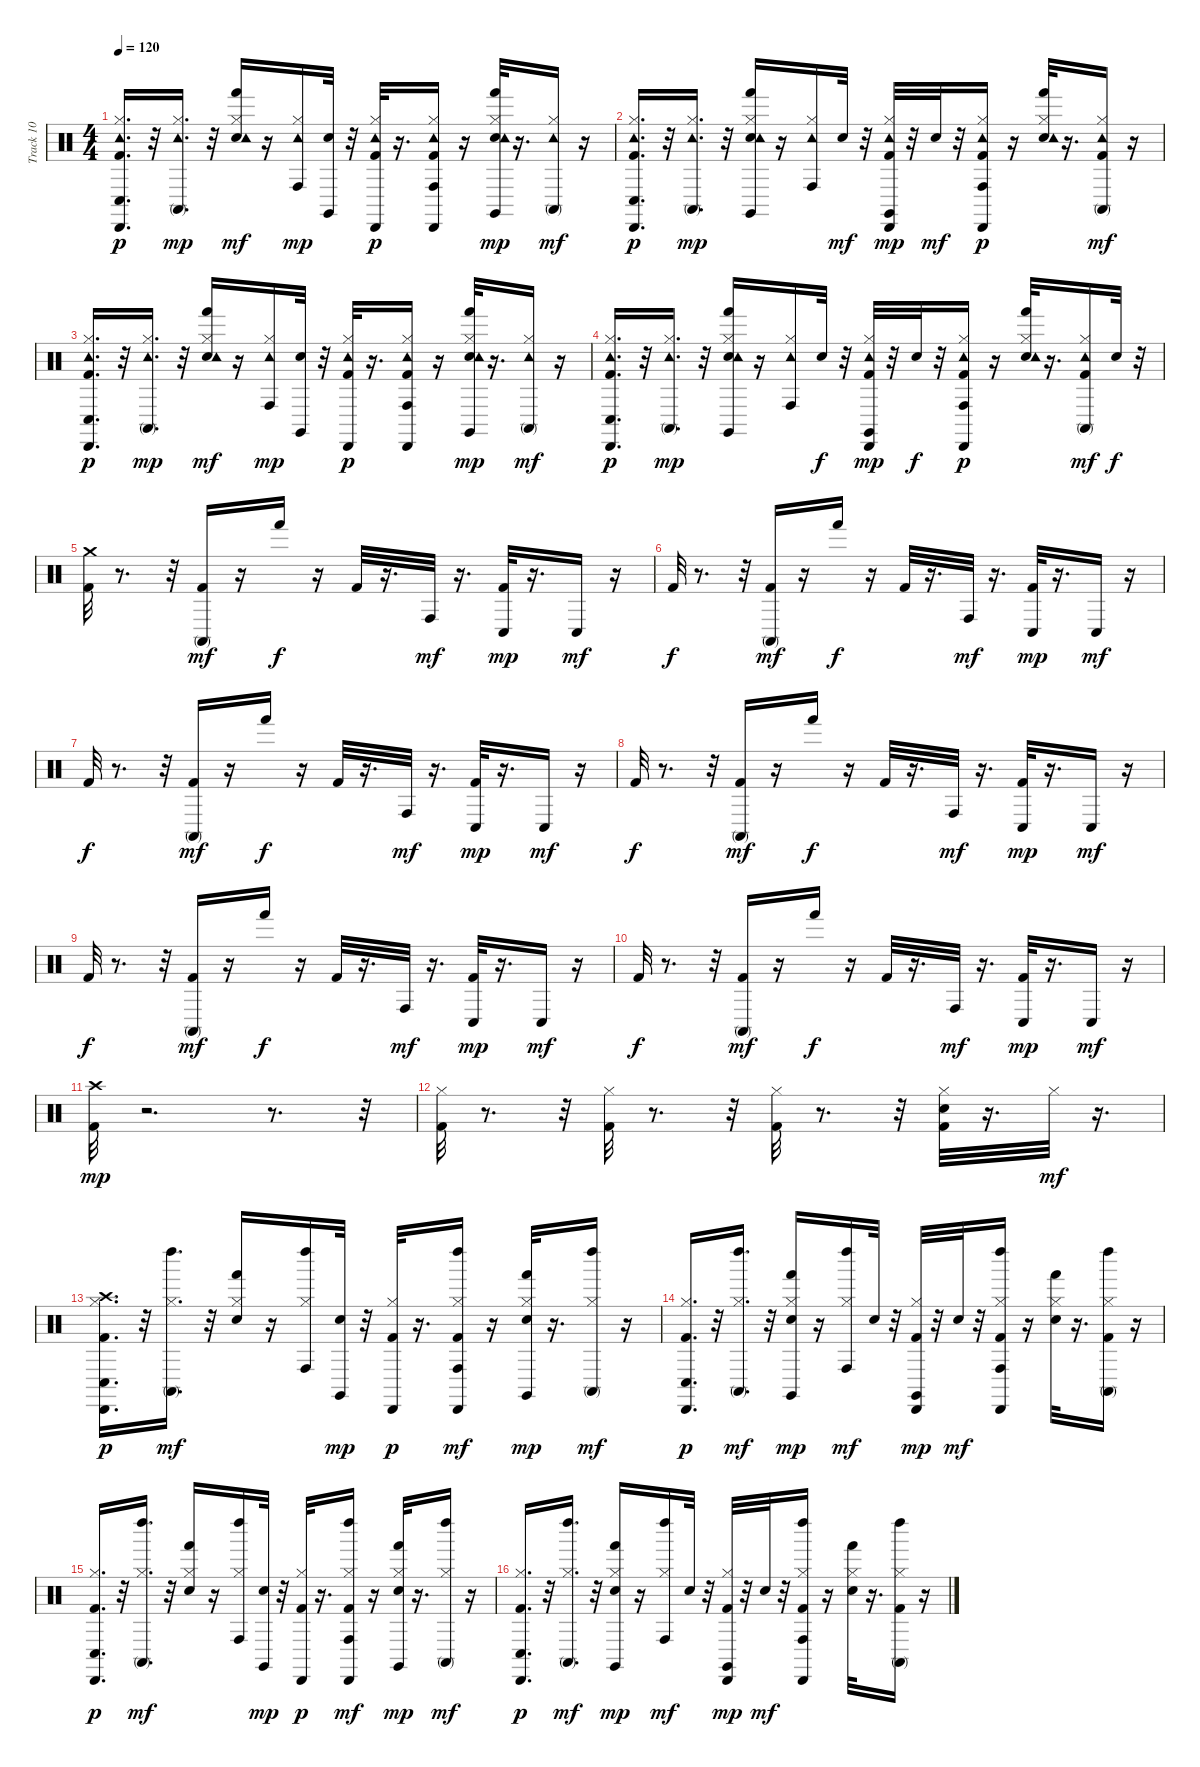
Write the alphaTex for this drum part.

\track ("Track 10" "Track 10") {instrument percussion}
\staff {score}
\articulation defaults
\ts (4 4)
\tempo 120
\clef neutral
\ks c
("Kick (hit) 2" "Hi-Hat (closed)" "Tambourine (hit)" "Conga low (hit)" "Cabasa (hit)").16{d dy p} r.32 ("Hi-Hat (closed)" "Tambourine (hit)" "Conga high (mute)").16{d dy mp} r.32 ("Electric Snare (hit)" "Hi-Hat (closed)" "Tambourine (hit)" "Hand (hit)").16{dy mf} r.16 ("Hi-Hat (closed)" "Tambourine (hit)" "Conga high (hit)").16{dy mp} ("Electric Snare (hit)" "Claves (hit)").32 r.32 ("Kick (hit) 2" "Hi-Hat (closed)" "Tambourine (hit)" "Cabasa (hit)").32{dy p} r.16{d} ("Kick (hit) 2" "Hi-Hat (closed)" "Tambourine (hit)" "Conga high (hit)" "Cabasa (hit)").16 r.16 ("Electric Snare (hit)" "Hi-Hat (closed)" "Tambourine (hit)" "Hand (hit)" "Claves (hit)").32{dy mp} r.16{d} ("Hi-Hat (closed)" "Tambourine (hit)" "Conga high (mute)").16{dy mf} r.16 |
("Kick (hit) 2" "Hi-Hat (closed)" "Tambourine (hit)" "Conga low (hit)" "Cabasa (hit)").16{d dy p} r.32 ("Hi-Hat (closed)" "Tambourine (hit)" "Conga high (mute)").16{d dy mp} r.32 ("Electric Snare (hit)" "Hi-Hat (closed)" "Tambourine (hit)" "Hand (hit)" "Claves (hit)").16 r.16 ("Hi-Hat (closed)" "Tambourine (hit)" "Conga high (hit)").16 "Electric Snare (hit)".32{dy mf} r.32 ("Kick (hit) 2" "Hi-Hat (closed)" "Tambourine (hit)" "Cabasa (hit)" "Claves (hit)").32{dy mp} r.32 "Electric Snare (hit)".32{dy mf} r.32 ("Kick (hit) 2" "Hi-Hat (closed)" "Tambourine (hit)" "Conga high (hit)" "Cabasa (hit)").16{dy p} r.16 ("Electric Snare (hit)" "Hi-Hat (closed)" "Tambourine (hit)" "Hand (hit)").32 r.16{d} ("Kick (hit) 2" "Hi-Hat (closed)" "Tambourine (hit)" "Conga high (mute)").16{dy mf} r.16 |
("Kick (hit) 2" "Hi-Hat (closed)" "Tambourine (hit)" "Conga low (hit)" "Cabasa (hit)").16{d dy p} r.32 ("Hi-Hat (closed)" "Tambourine (hit)" "Conga high (mute)").16{d dy mp} r.32 ("Electric Snare (hit)" "Hi-Hat (closed)" "Tambourine (hit)" "Hand (hit)").16{dy mf} r.16 ("Hi-Hat (closed)" "Tambourine (hit)" "Conga high (hit)").16{dy mp} ("Electric Snare (hit)" "Claves (hit)").32 r.32 ("Kick (hit) 2" "Hi-Hat (closed)" "Tambourine (hit)" "Cabasa (hit)").32{dy p} r.16{d} ("Kick (hit) 2" "Hi-Hat (closed)" "Tambourine (hit)" "Conga high (hit)" "Cabasa (hit)").16 r.16 ("Electric Snare (hit)" "Hi-Hat (closed)" "Tambourine (hit)" "Hand (hit)" "Claves (hit)").32{dy mp} r.16{d} ("Hi-Hat (closed)" "Tambourine (hit)" "Conga high (mute)").16{dy mf} r.16 |
("Kick (hit) 2" "Hi-Hat (closed)" "Tambourine (hit)" "Conga low (hit)" "Cabasa (hit)").16{d dy p} r.32 ("Hi-Hat (closed)" "Tambourine (hit)" "Conga high (mute)").16{d dy mp} r.32 ("Electric Snare (hit)" "Hi-Hat (closed)" "Tambourine (hit)" "Hand (hit)" "Claves (hit)").16 r.16 ("Hi-Hat (closed)" "Tambourine (hit)" "Conga high (hit)").16 "Electric Snare (hit)".32{dy f} r.32 ("Kick (hit) 2" "Hi-Hat (closed)" "Tambourine (hit)" "Cabasa (hit)" "Claves (hit)").32{dy mp} r.32 "Electric Snare (hit)".32{dy f} r.32 ("Kick (hit) 2" "Hi-Hat (closed)" "Tambourine (hit)" "Conga high (hit)" "Cabasa (hit)").16{dy p} r.16 ("Electric Snare (hit)" "Hi-Hat (closed)" "Tambourine (hit)" "Hand (hit)").32 r.16{d} ("Kick (hit) 2" "Hi-Hat (closed)" "Tambourine (hit)" "Conga high (mute)").16{dy mf} "Electric Snare (hit)".32{dy f} r.32 |
("Kick (hit) 2" "Crash medium (hit)").32 r.8{d} r.32 ("Kick (hit) 2" "Conga high (mute)").16{dy mf} r.16 "Hand (hit)".16{dy f} r.16 "Kick (hit) 2".32 r.16{d} "Conga high (hit)".32{dy mf} r.16{d} ("Kick (hit) 2" "Conga low (hit)").32{dy mp} r.16{d} "Conga low (hit)".16{dy mf} r.16 |
"Kick (hit) 2".32{dy f} r.8{d} r.32 ("Kick (hit) 2" "Conga high (mute)").16{dy mf} r.16 "Hand (hit)".16{dy f} r.16 "Kick (hit) 2".32 r.16{d} "Conga high (hit)".32{dy mf} r.16{d} ("Kick (hit) 2" "Conga low (hit)").32{dy mp} r.16{d} "Conga low (hit)".16{dy mf} r.16 |
"Kick (hit) 2".32{dy f} r.8{d} r.32 ("Kick (hit) 2" "Conga high (mute)").16{dy mf} r.16 "Hand (hit)".16{dy f} r.16 "Kick (hit) 2".32 r.16{d} "Conga high (hit)".32{dy mf} r.16{d} ("Kick (hit) 2" "Conga low (hit)").32{dy mp} r.16{d} "Conga low (hit)".16{dy mf} r.16 |
"Kick (hit) 2".32{dy f} r.8{d} r.32 ("Kick (hit) 2" "Conga high (mute)").16{dy mf} r.16 "Hand (hit)".16{dy f} r.16 "Kick (hit) 2".32 r.16{d} "Conga high (hit)".32{dy mf} r.16{d} ("Kick (hit) 2" "Conga low (hit)").32{dy mp} r.16{d} "Conga low (hit)".16{dy mf} r.16 |
"Kick (hit) 2".32{dy f} r.8{d} r.32 ("Kick (hit) 2" "Conga high (mute)").16{dy mf} r.16 "Hand (hit)".16{dy f} r.16 "Kick (hit) 2".32 r.16{d} "Conga high (hit)".32{dy mf} r.16{d} ("Kick (hit) 2" "Conga low (hit)").32{dy mp} r.16{d} "Conga low (hit)".16{dy mf} r.16 |
"Kick (hit) 2".32{dy f} r.8{d} r.32 ("Kick (hit) 2" "Conga high (mute)").16{dy mf} r.16 "Hand (hit)".16{dy f} r.16 "Kick (hit) 2".32 r.16{d} "Conga high (hit)".32{dy mf} r.16{d} ("Kick (hit) 2" "Conga low (hit)").32{dy mp} r.16{d} "Conga low (hit)".16{dy mf} r.16 |
("Kick (hit) 2" "Crash high (hit)").32{dy mp} r.2{d} r.8{d} r.32 |
("Kick (hit) 2" "Hi-Hat (closed)").32 r.8{d} r.32 ("Kick (hit) 2" "Hi-Hat (closed)").32 r.8{d} r.32 ("Kick (hit) 2" "Hi-Hat (closed)").32 r.8{d} r.32 ("Kick (hit) 2" "Electric Snare (hit)" "Hi-Hat (closed)").32 r.16{d} "Hi-Hat (closed)".32{dy mf} r.16{d} |
("Kick (hit) 2" "Hi-Hat (closed)" "Crash high (hit)" "Conga low (hit)" "Cabasa (hit)").16{d dy p} r.32 ("Hi-Hat (closed)" "Conga high (mute)" "Left Maraca (hit)").16{d dy mf} r.32 ("Electric Snare (hit)" "Hi-Hat (closed)" "Hand (hit)").16 r.16 ("Hi-Hat (closed)" "Conga high (hit)" "Left Maraca (hit)").16 ("Electric Snare (hit)" "Claves (hit)").32{dy mp} r.32 ("Kick (hit) 2" "Hi-Hat (closed)" "Cabasa (hit)").32{dy p} r.16{d} ("Kick (hit) 2" "Hi-Hat (closed)" "Conga high (hit)" "Cabasa (hit)" "Left Maraca (hit)").16{dy mf} r.16 ("Electric Snare (hit)" "Hi-Hat (closed)" "Hand (hit)" "Claves (hit)").32{dy mp} r.16{d} ("Hi-Hat (closed)" "Conga high (mute)" "Left Maraca (hit)").16{dy mf} r.16 |
("Kick (hit) 2" "Hi-Hat (closed)" "Conga low (hit)" "Cabasa (hit)").16{d dy p} r.32 ("Hi-Hat (closed)" "Conga high (mute)" "Left Maraca (hit)").16{d dy mf} r.32 ("Electric Snare (hit)" "Hi-Hat (closed)" "Hand (hit)" "Claves (hit)").16{dy mp} r.16 ("Hi-Hat (closed)" "Conga high (hit)" "Left Maraca (hit)").16{dy mf} "Electric Snare (hit)".32 r.32 ("Kick (hit) 2" "Hi-Hat (closed)" "Cabasa (hit)" "Claves (hit)").32{dy mp} r.32 "Electric Snare (hit)".32{dy mf} r.32 ("Kick (hit) 2" "Hi-Hat (closed)" "Conga high (hit)" "Cabasa (hit)" "Left Maraca (hit)").16 r.16 ("Electric Snare (hit)" "Hi-Hat (closed)" "Hand (hit)").32 r.16{d} ("Kick (hit) 2" "Hi-Hat (closed)" "Conga high (mute)" "Left Maraca (hit)").16 r.16 |
("Kick (hit) 2" "Hi-Hat (closed)" "Conga low (hit)" "Cabasa (hit)").16{d dy p} r.32 ("Hi-Hat (closed)" "Conga high (mute)" "Left Maraca (hit)").16{d dy mf} r.32 ("Electric Snare (hit)" "Hi-Hat (closed)" "Hand (hit)").16 r.16 ("Hi-Hat (closed)" "Conga high (hit)" "Left Maraca (hit)").16 ("Electric Snare (hit)" "Claves (hit)").32{dy mp} r.32 ("Kick (hit) 2" "Hi-Hat (closed)" "Cabasa (hit)").32{dy p} r.16{d} ("Kick (hit) 2" "Hi-Hat (closed)" "Conga high (hit)" "Cabasa (hit)" "Left Maraca (hit)").16{dy mf} r.16 ("Electric Snare (hit)" "Hi-Hat (closed)" "Hand (hit)" "Claves (hit)").32{dy mp} r.16{d} ("Hi-Hat (closed)" "Conga high (mute)" "Left Maraca (hit)").16{dy mf} r.16 |
("Kick (hit) 2" "Hi-Hat (closed)" "Conga low (hit)" "Cabasa (hit)").16{d dy p} r.32 ("Hi-Hat (closed)" "Conga high (mute)" "Left Maraca (hit)").16{d dy mf} r.32 ("Electric Snare (hit)" "Hi-Hat (closed)" "Hand (hit)" "Claves (hit)").16{dy mp} r.16 ("Hi-Hat (closed)" "Conga high (hit)" "Left Maraca (hit)").16{dy mf} "Electric Snare (hit)".32 r.32 ("Kick (hit) 2" "Hi-Hat (closed)" "Cabasa (hit)" "Claves (hit)").32{dy mp} r.32 "Electric Snare (hit)".32{dy mf} r.32 ("Kick (hit) 2" "Hi-Hat (closed)" "Conga high (hit)" "Cabasa (hit)" "Left Maraca (hit)").16 r.16 ("Electric Snare (hit)" "Hi-Hat (closed)" "Hand (hit)").32 r.16{d} ("Kick (hit) 2" "Hi-Hat (closed)" "Conga high (mute)" "Left Maraca (hit)").16 r.16
